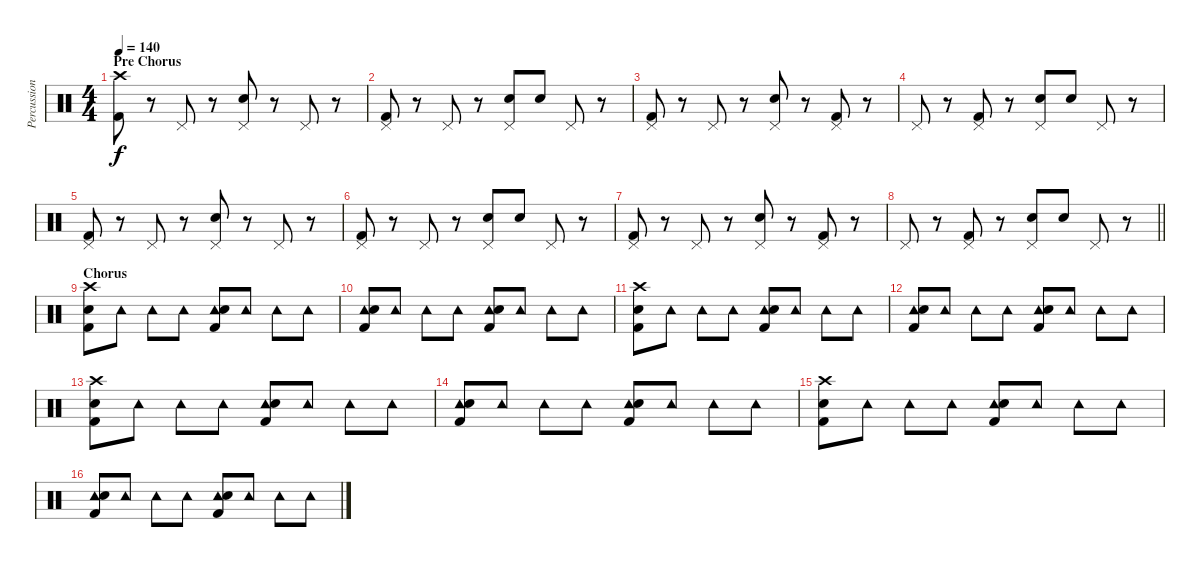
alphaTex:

\track ("Percussion" "Percussion") {instrument percussion}
\staff {score}
\articulation defaults
\ts (4 4)
\section ("" "Pre Chorus")
\tempo 140
\clef neutral
\ks c
("Crash high (hit)" "Kick (hit) 2").8{dy f} r.8 "Pedal Hi-Hat (hit)".8 r.8 ("Pedal Hi-Hat (hit)" "Snare (hit) 2").8 r.8 "Pedal Hi-Hat (hit)".8 r.8 |
("Pedal Hi-Hat (hit)" "Kick (hit) 2").8 r.8 "Pedal Hi-Hat (hit)".8 r.8 ("Pedal Hi-Hat (hit)" "Snare (hit) 2").8 "Snare (hit) 2".8 "Pedal Hi-Hat (hit)".8 r.8 |
("Pedal Hi-Hat (hit)" "Kick (hit) 2").8 r.8 "Pedal Hi-Hat (hit)".8 r.8 ("Pedal Hi-Hat (hit)" "Snare (hit) 2").8 r.8 ("Pedal Hi-Hat (hit)" "Kick (hit) 2").8 r.8 |
"Pedal Hi-Hat (hit)".8 r.8 ("Pedal Hi-Hat (hit)" "Kick (hit) 2").8 r.8 ("Pedal Hi-Hat (hit)" "Snare (hit) 2").8 "Snare (hit) 2".8 "Pedal Hi-Hat (hit)".8 r.8 |
("Pedal Hi-Hat (hit)" "Kick (hit) 2").8 r.8 "Pedal Hi-Hat (hit)".8 r.8 ("Pedal Hi-Hat (hit)" "Snare (hit) 2").8 r.8 "Pedal Hi-Hat (hit)".8 r.8 |
("Pedal Hi-Hat (hit)" "Kick (hit) 2").8 r.8 "Pedal Hi-Hat (hit)".8 r.8 ("Pedal Hi-Hat (hit)" "Snare (hit) 2").8 "Snare (hit) 2".8 "Pedal Hi-Hat (hit)".8 r.8 |
("Pedal Hi-Hat (hit)" "Kick (hit) 2").8 r.8 "Pedal Hi-Hat (hit)".8 r.8 ("Pedal Hi-Hat (hit)" "Snare (hit) 2").8 r.8 ("Pedal Hi-Hat (hit)" "Kick (hit) 2").8 r.8 |
\barLineRight lightlight "Pedal Hi-Hat (hit)".8
r.8 ("Pedal Hi-Hat (hit)" "Kick (hit) 2").8 r.8 ("Pedal Hi-Hat (hit)" "Snare (hit) 2").8 "Snare (hit) 2".8 "Pedal Hi-Hat (hit)".8 r.8 |
\section ("" "Chorus")
("Crash high (hit)" "Snare (hit) 2" "Kick (hit) 2").8 "Tambourine (hit)".8 "Tambourine (hit)".8 "Tambourine (hit)".8 ("Tambourine (hit)" "Snare (hit) 2" "Kick (hit) 2").8 "Tambourine (hit)".8 "Tambourine (hit)".8 "Tambourine (hit)".8 |
("Tambourine (hit)" "Snare (hit) 2" "Kick (hit) 2").8 "Tambourine (hit)".8 "Tambourine (hit)".8 "Tambourine (hit)".8 ("Tambourine (hit)" "Snare (hit) 2" "Kick (hit) 2").8 "Tambourine (hit)".8 "Tambourine (hit)".8 "Tambourine (hit)".8 |
("Crash high (hit)" "Snare (hit) 2" "Kick (hit) 2").8 "Tambourine (hit)".8 "Tambourine (hit)".8 "Tambourine (hit)".8 ("Tambourine (hit)" "Snare (hit) 2" "Kick (hit) 2").8 "Tambourine (hit)".8 "Tambourine (hit)".8 "Tambourine (hit)".8 |
("Tambourine (hit)" "Snare (hit) 2" "Kick (hit) 2").8 "Tambourine (hit)".8 "Tambourine (hit)".8 "Tambourine (hit)".8 ("Tambourine (hit)" "Snare (hit) 2" "Kick (hit) 2").8 "Tambourine (hit)".8 "Tambourine (hit)".8 "Tambourine (hit)".8 |
("Crash high (hit)" "Snare (hit) 2" "Kick (hit) 2").8 "Tambourine (hit)".8 "Tambourine (hit)".8 "Tambourine (hit)".8 ("Tambourine (hit)" "Snare (hit) 2" "Kick (hit) 2").8 "Tambourine (hit)".8 "Tambourine (hit)".8 "Tambourine (hit)".8 |
("Tambourine (hit)" "Snare (hit) 2" "Kick (hit) 2").8 "Tambourine (hit)".8 "Tambourine (hit)".8 "Tambourine (hit)".8 ("Tambourine (hit)" "Snare (hit) 2" "Kick (hit) 2").8 "Tambourine (hit)".8 "Tambourine (hit)".8 "Tambourine (hit)".8 |
("Crash high (hit)" "Snare (hit) 2" "Kick (hit) 2").8 "Tambourine (hit)".8 "Tambourine (hit)".8 "Tambourine (hit)".8 ("Tambourine (hit)" "Snare (hit) 2" "Kick (hit) 2").8 "Tambourine (hit)".8 "Tambourine (hit)".8 "Tambourine (hit)".8 |
("Tambourine (hit)" "Snare (hit) 2" "Kick (hit) 2").8 "Tambourine (hit)".8 "Tambourine (hit)".8 "Tambourine (hit)".8 ("Tambourine (hit)" "Snare (hit) 2" "Kick (hit) 2").8 "Tambourine (hit)".8 "Tambourine (hit)".8 "Tambourine (hit)".8
